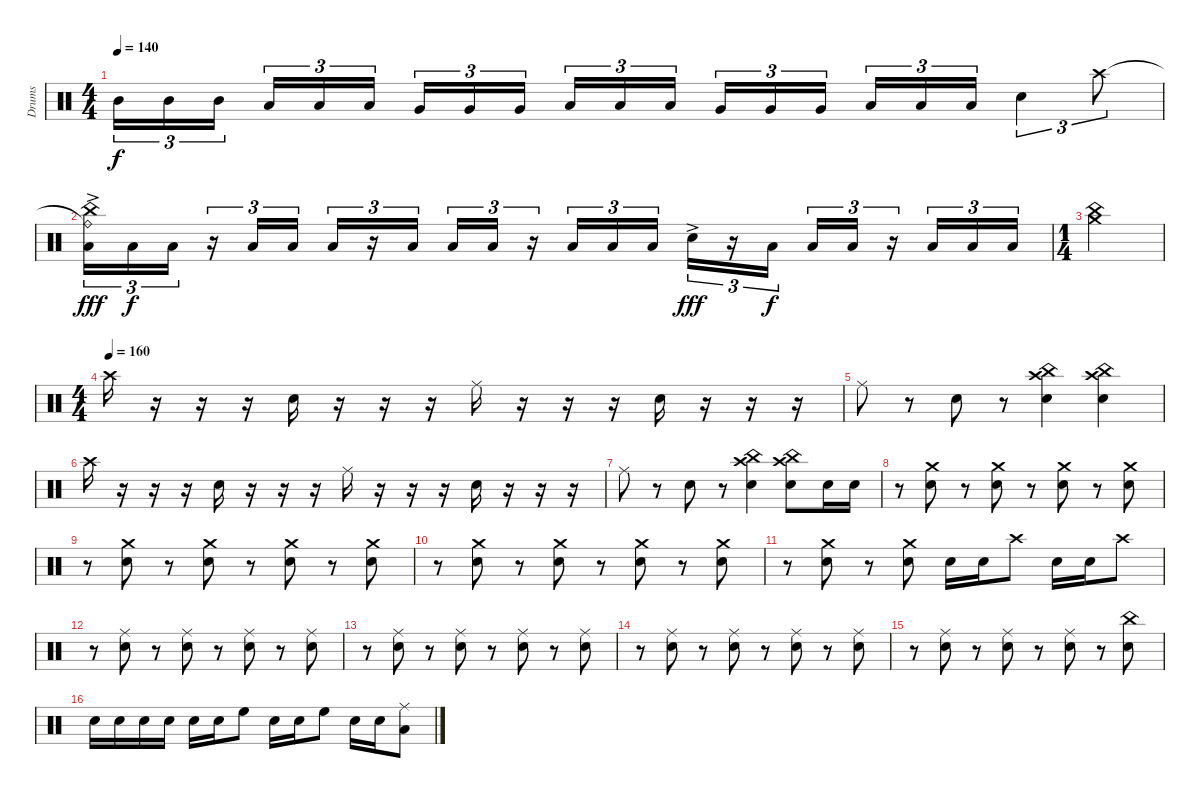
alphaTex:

\track ("Drums" "Drums") {instrument percussion}
\staff {score}
\articulation defaults
\ts (4 4)
\tempo 140
\clef neutral
\ks c "Mid Tom (hit)".16{tu (3 2) dy f} "Mid Tom (hit)".16{tu (3 2)} "Mid Tom (hit)".16{tu (3 2)} "Low Tom (hit)".16{tu (3 2)} "Low Tom (hit)".16{tu (3 2)} "Low Tom (hit)".16{tu (3 2)} "Very Low Tom (hit)".16{tu (3 2)} "Very Low Tom (hit)".16{tu (3 2)} "Very Low Tom (hit)".16{tu (3 2)} "Low Tom (hit)".16{tu (3 2)} "Low Tom (hit)".16{tu (3 2)} "Low Tom (hit)".16{tu (3 2)} "Very Low Tom (hit)".16{tu (3 2)} "Very Low Tom (hit)".16{tu (3 2)} "Very Low Tom (hit)".16{tu (3 2)} "Low Floor Tom (hit)".16{tu (3 2)} "Low Floor Tom (hit)".16{tu (3 2)} "Low Floor Tom (hit)".16{tu (3 2)} "Electric Snare (hit)".4{tu (3 2)} "Crash high (hit)".8{tu (3 2)}
|
("Ride (bell)"{t} "China (hit)"{ac} "Low Floor Tom (hit)").16{tu (3 2) dy fff} "Low Floor Tom (hit)".16{tu (3 2) dy f} "Low Floor Tom (hit)".16{tu (3 2)} r.16{tu (3 2)} "Low Floor Tom (hit)".16{tu (3 2)} "Low Floor Tom (hit)".16{tu (3 2)} "Low Floor Tom (hit)".16{tu (3 2)} r.16{tu (3 2)} "Low Floor Tom (hit)".16{tu (3 2)} "Low Floor Tom (hit)".16{tu (3 2)} "Low Floor Tom (hit)".16{tu (3 2)} r.16{tu (3 2)} "Low Floor Tom (hit)".16{tu (3 2)} "Low Floor Tom (hit)".16{tu (3 2)} "Low Floor Tom (hit)".16{tu (3 2)} "Electric Snare (hit)"{ac}.16{tu (3 2) dy fff} r.16{tu (3 2)} "Low Floor Tom (hit)".16{tu (3 2) dy f} "Low Floor Tom (hit)".16{tu (3 2)} "Low Floor Tom (hit)".16{tu (3 2)} r.16{tu (3 2)} "Low Floor Tom (hit)".16{tu (3 2)} "Low Floor Tom (hit)".16{tu (3 2)} "Low Floor Tom (hit)".16{tu (3 2)} |
\ts (1 4)
("Crash medium (hit)" "China (hit)").4 |
\ts (4 4)
\tempo 160
\ks aminor "Crash high (hit)".16
r.16 r.16 r.16 "Electric Snare (hit)".16 r.16 r.16 r.16 "Ride (middle)".16 r.16 r.16 r.16 "Electric Snare (hit)".16 r.16 r.16 r.16 |
\ks c "Ride (middle)".8
r.8 "Electric Snare (hit)".8 r.8 ("Crash high (hit)" "China (hit)" "Electric Snare (hit)").4 ("Crash high (hit)" "China (hit)" "Electric Snare (hit)").4 |
\ks aminor "Crash high (hit)".16
r.16 r.16 r.16 "Electric Snare (hit)".16 r.16 r.16 r.16 "Ride (middle)".16 r.16 r.16 r.16 "Electric Snare (hit)".16 r.16 r.16 r.16 |
\ks c "Ride (middle)".8
r.8 "Electric Snare (hit)".8 r.8 ("Crash high (hit)" "China (hit)" "Electric Snare (hit)").4 ("Crash high (hit)" "China (hit)" "Electric Snare (hit)").8 "Electric Snare (hit)".16 "Electric Snare (hit)".16 |
\ks aminor
r.8 ("Crash medium (hit)" "Electric Snare (hit)").8 r.8 ("Crash medium (hit)" "Electric Snare (hit)").8 r.8 ("Crash medium (hit)" "Electric Snare (hit)").8 r.8 ("Crash medium (hit)" "Electric Snare (hit)").8 |
\ks c
r.8 ("Crash medium (hit)" "Electric Snare (hit)").8 r.8 ("Crash medium (hit)" "Electric Snare (hit)").8 r.8 ("Crash medium (hit)" "Electric Snare (hit)").8 r.8 ("Crash medium (hit)" "Electric Snare (hit)").8 |
r.8 ("Crash medium (hit)" "Electric Snare (hit)").8 r.8 ("Crash medium (hit)" "Electric Snare (hit)").8 r.8 ("Crash medium (hit)" "Electric Snare (hit)").8 r.8 ("Crash medium (hit)" "Electric Snare (hit)").8 |
r.8 ("Crash medium (hit)" "Electric Snare (hit)").8 r.8 ("Crash medium (hit)" "Electric Snare (hit)").8 "Electric Snare (hit)".16 "Electric Snare (hit)".16 "Crash high (hit)".8 "Electric Snare (hit)".16 "Electric Snare (hit)".16 "Crash high (hit)".8 |
r.8 ("Ride (middle)" "Electric Snare (hit)").8 r.8 ("Ride (middle)" "Electric Snare (hit)").8 r.8 ("Ride (middle)" "Electric Snare (hit)").8 r.8 ("Ride (middle)" "Electric Snare (hit)").8 |
r.8 ("Ride (middle)" "Electric Snare (hit)").8 r.8 ("Ride (middle)" "Electric Snare (hit)").8 r.8 ("Ride (middle)" "Electric Snare (hit)").8 r.8 ("Ride (middle)" "Electric Snare (hit)").8 |
r.8 ("Ride (middle)" "Electric Snare (hit)").8 r.8 ("Ride (middle)" "Electric Snare (hit)").8 r.8 ("Ride (middle)" "Electric Snare (hit)").8 r.8 ("Ride (middle)" "Electric Snare (hit)").8 |
r.8 ("Ride (middle)" "Electric Snare (hit)").8 r.8 ("Ride (middle)" "Electric Snare (hit)").8 r.8 ("Ride (middle)" "Electric Snare (hit)").8 r.8 ("China (hit)" "Electric Snare (hit)").8 |
"Electric Snare (hit)".16 "Electric Snare (hit)".16 "Electric Snare (hit)".16 "Electric Snare (hit)".16 "Electric Snare (hit)".16 "Electric Snare (hit)".16 "High Floor Tom (hit)".8 "Electric Snare (hit)".16 "Electric Snare (hit)".16 "High Floor Tom (hit)".8 "Electric Snare (hit)".16 "Electric Snare (hit)".16 ("Ride (middle)" "Low Floor Tom (hit)").8
